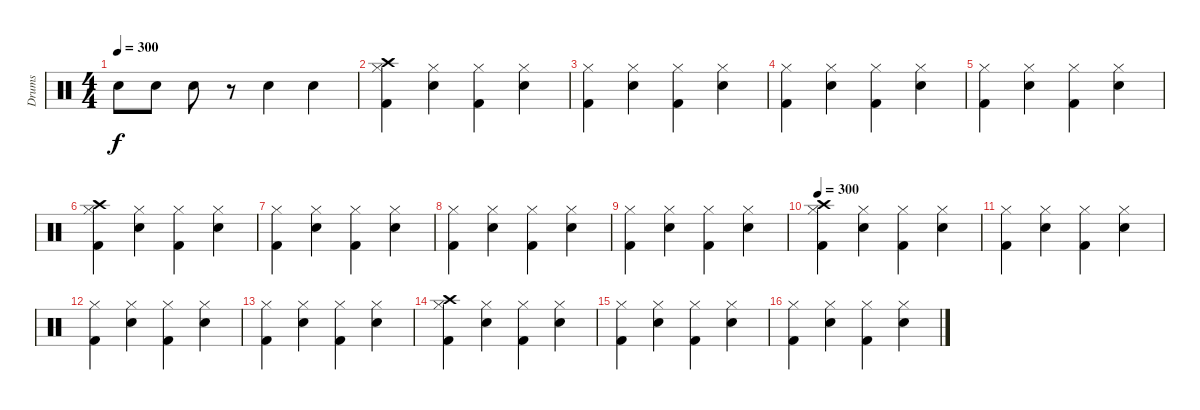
\track ("Drums" "Drums") {instrument percussion}
\staff {score}
\articulation defaults
\ts (4 4)
\tempo 300
\clef neutral
\ks c "Snare (hit) 2".8{dy f} "Snare (hit) 2".8 "Snare (hit) 2".8
r.8 "Snare (hit) 2".4 "Snare (hit) 2".4 |
("Hi-Hat (closed)" "Kick (hit) 2" "Crash high (hit)").4 ("Hi-Hat (closed)" "Snare (hit) 2").4 ("Hi-Hat (closed)" "Kick (hit) 2").4 ("Hi-Hat (closed)" "Snare (hit) 2").4 |
("Hi-Hat (closed)" "Kick (hit) 2").4 ("Hi-Hat (closed)" "Snare (hit) 2").4 ("Hi-Hat (closed)" "Kick (hit) 2").4 ("Hi-Hat (closed)" "Snare (hit) 2").4 |
("Hi-Hat (closed)" "Kick (hit) 2").4 ("Hi-Hat (closed)" "Snare (hit) 2").4 ("Hi-Hat (closed)" "Kick (hit) 2").4 ("Hi-Hat (closed)" "Snare (hit) 2").4 |
("Hi-Hat (closed)" "Kick (hit) 2").4 ("Hi-Hat (closed)" "Snare (hit) 2").4 ("Hi-Hat (closed)" "Kick (hit) 2").4 ("Hi-Hat (closed)" "Snare (hit) 2").4 |
("Hi-Hat (closed)" "Kick (hit) 2" "Crash high (hit)").4 ("Hi-Hat (closed)" "Snare (hit) 2").4 ("Hi-Hat (closed)" "Kick (hit) 2").4 ("Hi-Hat (closed)" "Snare (hit) 2").4 |
("Hi-Hat (closed)" "Kick (hit) 2").4 ("Hi-Hat (closed)" "Snare (hit) 2").4 ("Hi-Hat (closed)" "Kick (hit) 2").4 ("Hi-Hat (closed)" "Snare (hit) 2").4 |
("Hi-Hat (closed)" "Kick (hit) 2").4 ("Hi-Hat (closed)" "Snare (hit) 2").4 ("Hi-Hat (closed)" "Kick (hit) 2").4 ("Hi-Hat (closed)" "Snare (hit) 2").4 |
("Hi-Hat (closed)" "Kick (hit) 2").4 ("Hi-Hat (closed)" "Snare (hit) 2").4 ("Hi-Hat (closed)" "Kick (hit) 2").4 ("Hi-Hat (closed)" "Snare (hit) 2").4 |
\tempo 300
("Hi-Hat (closed)" "Kick (hit) 2" "Crash high (hit)").4 ("Hi-Hat (closed)" "Snare (hit) 2").4 ("Hi-Hat (closed)" "Kick (hit) 2").4 ("Hi-Hat (closed)" "Snare (hit) 2").4 |
("Hi-Hat (closed)" "Kick (hit) 2").4 ("Hi-Hat (closed)" "Snare (hit) 2").4 ("Hi-Hat (closed)" "Kick (hit) 2").4 ("Hi-Hat (closed)" "Snare (hit) 2").4 |
("Hi-Hat (closed)" "Kick (hit) 2").4 ("Hi-Hat (closed)" "Snare (hit) 2").4 ("Hi-Hat (closed)" "Kick (hit) 2").4 ("Hi-Hat (closed)" "Snare (hit) 2").4 |
("Hi-Hat (closed)" "Kick (hit) 2").4 ("Hi-Hat (closed)" "Snare (hit) 2").4 ("Hi-Hat (closed)" "Kick (hit) 2").4 ("Hi-Hat (closed)" "Snare (hit) 2").4 |
("Hi-Hat (closed)" "Kick (hit) 2" "Crash high (hit)").4 ("Hi-Hat (closed)" "Snare (hit) 2").4 ("Hi-Hat (closed)" "Kick (hit) 2").4 ("Hi-Hat (closed)" "Snare (hit) 2").4 |
("Hi-Hat (closed)" "Kick (hit) 2").4 ("Hi-Hat (closed)" "Snare (hit) 2").4 ("Hi-Hat (closed)" "Kick (hit) 2").4 ("Hi-Hat (closed)" "Snare (hit) 2").4 |
("Hi-Hat (closed)" "Kick (hit) 2").4 ("Hi-Hat (closed)" "Snare (hit) 2").4 ("Hi-Hat (closed)" "Kick (hit) 2").4 ("Hi-Hat (closed)" "Snare (hit) 2").4
